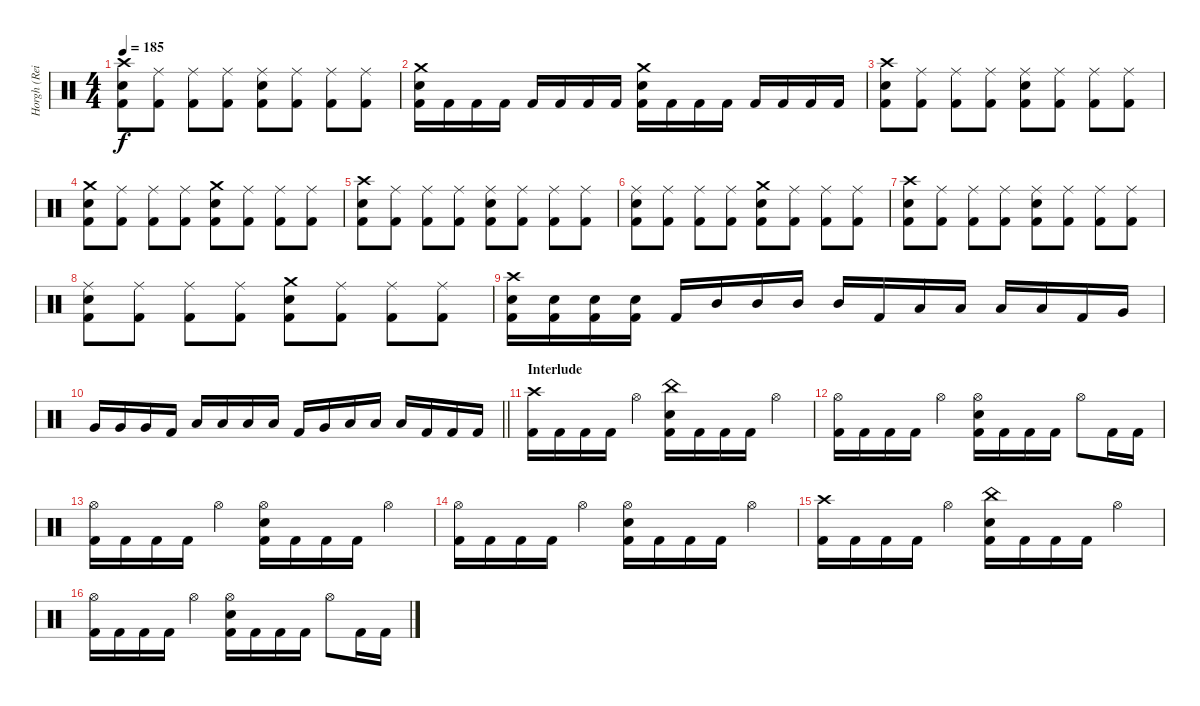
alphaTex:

\track ("Horgh (Reidar Horghagen)" "Horgh (Rei") {instrument percussion}
\staff {score}
\articulation defaults
\ts (4 4)
\tempo 185
\clef neutral
\ks c
("Crash high (hit)" "Snare (hit) 2" "Kick (hit) 2").8{dy f} ("Ride (middle)" "Kick (hit) 2").8 ("Ride (middle)" "Kick (hit) 2").8 ("Ride (middle)" "Kick (hit) 2").8 ("Ride (middle)" "Snare (hit) 2" "Kick (hit) 2").8 ("Ride (middle)" "Kick (hit) 2").8 ("Ride (middle)" "Kick (hit) 2").8 ("Ride (middle)" "Kick (hit) 2").8 |
("Crash medium (hit)" "Snare (hit) 2" "Kick (hit) 2").16 "Kick (hit) 2".16 "Kick (hit) 2".16 "Kick (hit) 2".16 "Kick (hit) 2".16 "Kick (hit) 2".16 "Kick (hit) 2".16 "Kick (hit) 2".16 ("Crash medium (hit)" "Snare (hit) 2" "Kick (hit) 2").16 "Kick (hit) 2".16 "Kick (hit) 2".16 "Kick (hit) 2".16 "Kick (hit) 2".16 "Kick (hit) 2".16 "Kick (hit) 2".16 "Kick (hit) 2".16 |
("Crash high (hit)" "Snare (hit) 2" "Kick (hit) 2").8 ("Ride (middle)" "Kick (hit) 2").8 ("Ride (middle)" "Kick (hit) 2").8 ("Ride (middle)" "Kick (hit) 2").8 ("Ride (middle)" "Snare (hit) 2" "Kick (hit) 2").8 ("Ride (middle)" "Kick (hit) 2").8 ("Ride (middle)" "Kick (hit) 2").8 ("Ride (middle)" "Kick (hit) 2").8 |
("Crash medium (hit)" "Snare (hit) 2" "Kick (hit) 2").8 ("Ride (middle)" "Kick (hit) 2").8 ("Ride (middle)" "Kick (hit) 2").8 ("Ride (middle)" "Kick (hit) 2").8 ("Crash medium (hit)" "Snare (hit) 2" "Kick (hit) 2").8 ("Ride (middle)" "Kick (hit) 2").8 ("Ride (middle)" "Kick (hit) 2").8 ("Ride (middle)" "Kick (hit) 2").8 |
("Crash high (hit)" "Snare (hit) 2" "Kick (hit) 2").8 ("Ride (middle)" "Kick (hit) 2").8 ("Ride (middle)" "Kick (hit) 2").8 ("Ride (middle)" "Kick (hit) 2").8 ("Ride (middle)" "Snare (hit) 2" "Kick (hit) 2").8 ("Ride (middle)" "Kick (hit) 2").8 ("Ride (middle)" "Kick (hit) 2").8 ("Ride (middle)" "Kick (hit) 2").8 |
("Ride (middle)" "Snare (hit) 2" "Kick (hit) 2").8 ("Ride (middle)" "Kick (hit) 2").8 ("Ride (middle)" "Kick (hit) 2").8 ("Ride (middle)" "Kick (hit) 2").8 ("Crash medium (hit)" "Snare (hit) 2" "Kick (hit) 2").8 ("Ride (middle)" "Kick (hit) 2").8 ("Ride (middle)" "Kick (hit) 2").8 ("Ride (middle)" "Kick (hit) 2").8 |
("Crash high (hit)" "Snare (hit) 2" "Kick (hit) 2").8 ("Ride (middle)" "Kick (hit) 2").8 ("Ride (middle)" "Kick (hit) 2").8 ("Ride (middle)" "Kick (hit) 2").8 ("Ride (middle)" "Snare (hit) 2" "Kick (hit) 2").8 ("Ride (middle)" "Kick (hit) 2").8 ("Ride (middle)" "Kick (hit) 2").8 ("Ride (middle)" "Kick (hit) 2").8 |
("Ride (middle)" "Snare (hit) 2" "Kick (hit) 2").8 ("Ride (middle)" "Kick (hit) 2").8 ("Ride (middle)" "Kick (hit) 2").8 ("Ride (middle)" "Kick (hit) 2").8 ("Crash medium (hit)" "Snare (hit) 2" "Kick (hit) 2").8 ("Ride (middle)" "Kick (hit) 2").8 ("Ride (middle)" "Kick (hit) 2").8 ("Ride (middle)" "Kick (hit) 2").8 |
("Crash high (hit)" "Snare (hit) 2" "Kick (hit) 2").16 ("Snare (hit) 2" "Kick (hit) 2").16 ("Snare (hit) 2" "Kick (hit) 2").16 ("Snare (hit) 2" "Kick (hit) 2").16 "Kick (hit) 2".16 "Mid Tom (hit)".16 "Mid Tom (hit)".16 "Mid Tom (hit)".16 "Mid Tom (hit)".16 "Kick (hit) 2".16 "Low Tom (hit)".16 "Low Tom (hit)".16 "Low Tom (hit)".16 "Low Tom (hit)".16 "Kick (hit) 2".16 "Very Low Tom (hit)".16 |
\barLineRight lightlight "Very Low Tom (hit)".16 "Very Low Tom (hit)".16 "Very Low Tom (hit)".16 "Kick (hit) 2".16 "Low Floor Tom (hit)".16 "Low Floor Tom (hit)".16 "Low Floor Tom (hit)".16 "Low Floor Tom (hit)".16 "Kick (hit) 2".16 "Very Low Tom (hit)".16 "Low Floor Tom (hit)".16 "Low Floor Tom (hit)".16 "Low Floor Tom (hit)".16 "Kick (hit) 2".16 "Kick (hit) 2".16 "Kick (hit) 2".16
|
\section ("" "Interlude")
("Crash high (hit)" "Kick (hit) 2").16 "Kick (hit) 2".16 "Kick (hit) 2".16 "Kick (hit) 2".16 "Hi-Hat (open)".4 ("China (hit)" "Snare (hit) 2" "Kick (hit) 2").16 "Kick (hit) 2".16 "Kick (hit) 2".16 "Kick (hit) 2".16 "Hi-Hat (open)".4 |
("Hi-Hat (open)" "Kick (hit) 2").16 "Kick (hit) 2".16 "Kick (hit) 2".16 "Kick (hit) 2".16 "Hi-Hat (open)".4 ("Hi-Hat (open)" "Snare (hit) 2" "Kick (hit) 2").16 "Kick (hit) 2".16 "Kick (hit) 2".16 "Kick (hit) 2".16 "Hi-Hat (open)".8 "Kick (hit) 2".16 "Kick (hit) 2".16 |
("Hi-Hat (open)" "Kick (hit) 2").16 "Kick (hit) 2".16 "Kick (hit) 2".16 "Kick (hit) 2".16 "Hi-Hat (open)".4 ("Hi-Hat (open)" "Snare (hit) 2" "Kick (hit) 2").16 "Kick (hit) 2".16 "Kick (hit) 2".16 "Kick (hit) 2".16 "Hi-Hat (open)".4 |
("Hi-Hat (open)" "Kick (hit) 2").16 "Kick (hit) 2".16 "Kick (hit) 2".16 "Kick (hit) 2".16 "Hi-Hat (open)".4 ("Hi-Hat (open)" "Snare (hit) 2" "Kick (hit) 2").16 "Kick (hit) 2".16 "Kick (hit) 2".16 "Kick (hit) 2".16 "Hi-Hat (open)".4 |
("Crash high (hit)" "Kick (hit) 2").16 "Kick (hit) 2".16 "Kick (hit) 2".16 "Kick (hit) 2".16 "Hi-Hat (open)".4 ("China (hit)" "Snare (hit) 2" "Kick (hit) 2").16 "Kick (hit) 2".16 "Kick (hit) 2".16 "Kick (hit) 2".16 "Hi-Hat (open)".4 |
("Hi-Hat (open)" "Kick (hit) 2").16 "Kick (hit) 2".16 "Kick (hit) 2".16 "Kick (hit) 2".16 "Hi-Hat (open)".4 ("Hi-Hat (open)" "Snare (hit) 2" "Kick (hit) 2").16 "Kick (hit) 2".16 "Kick (hit) 2".16 "Kick (hit) 2".16 "Hi-Hat (open)".8 "Kick (hit) 2".16 "Kick (hit) 2".16
